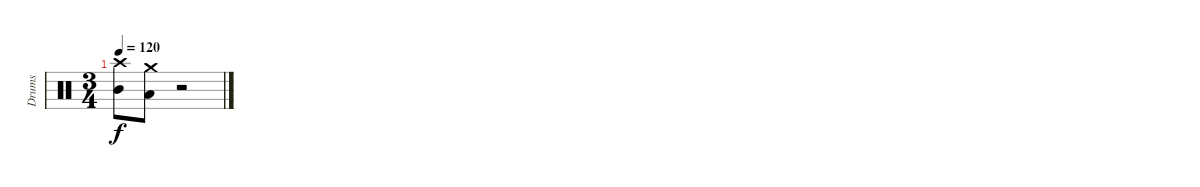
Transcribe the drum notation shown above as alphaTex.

\track ("Drums" "Drums") {instrument percussion}
\staff {score}
\articulation defaults
\ts (3 4)
\tempo 120
\clef neutral
\ks c
("Crash high (hit)" "Mid Tom (hit)").8{dy f} ("Crash medium (hit)" "Low Tom (hit)").8 r.2
